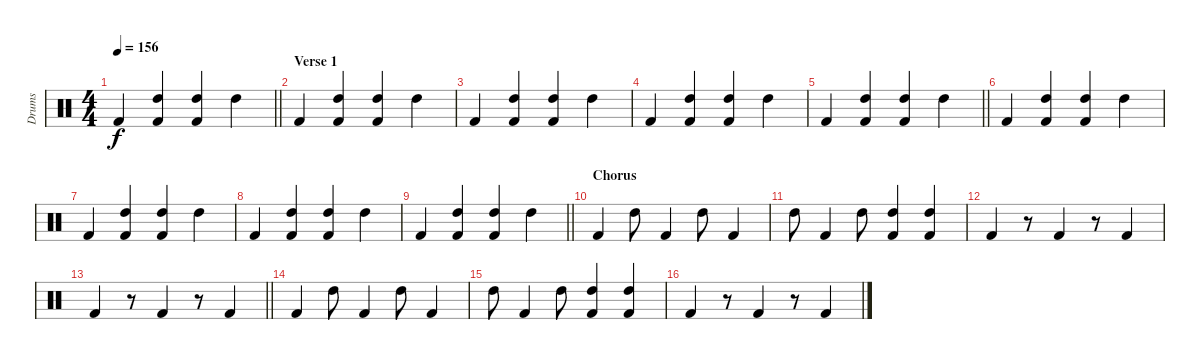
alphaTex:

\track ("Drums" "Drums") {instrument percussion}
\staff
\articulation defaults
\ts (4 4)
\tempo 156
\clef neutral
\barLineRight lightlight
\ks c "Kick (hit) 2".4{dy f}
("High Tom (hit)" "Kick (hit) 2").4 ("High Tom (hit)" "Kick (hit) 2").4 "High Tom (hit)".4 |
\section ("" "Verse 1")
"Kick (hit) 2".4 ("High Tom (hit)" "Kick (hit) 2").4 ("High Tom (hit)" "Kick (hit) 2").4 "High Tom (hit)".4 |
"Kick (hit) 2".4 ("High Tom (hit)" "Kick (hit) 2").4 ("High Tom (hit)" "Kick (hit) 2").4 "High Tom (hit)".4 |
"Kick (hit) 2".4 ("High Tom (hit)" "Kick (hit) 2").4 ("High Tom (hit)" "Kick (hit) 2").4 "High Tom (hit)".4 |
\barLineRight lightlight "Kick (hit) 2".4
("High Tom (hit)" "Kick (hit) 2").4 ("High Tom (hit)" "Kick (hit) 2").4 "High Tom (hit)".4 |
"Kick (hit) 2".4 ("High Tom (hit)" "Kick (hit) 2").4 ("High Tom (hit)" "Kick (hit) 2").4 "High Tom (hit)".4 |
"Kick (hit) 2".4 ("High Tom (hit)" "Kick (hit) 2").4 ("High Tom (hit)" "Kick (hit) 2").4 "High Tom (hit)".4 |
"Kick (hit) 2".4 ("High Tom (hit)" "Kick (hit) 2").4 ("High Tom (hit)" "Kick (hit) 2").4 "High Tom (hit)".4 |
\barLineRight lightlight "Kick (hit) 2".4
("High Tom (hit)" "Kick (hit) 2").4 ("High Tom (hit)" "Kick (hit) 2").4 "High Tom (hit)".4 |
\section ("" "Chorus")
"Kick (hit) 2".4 "High Tom (hit)".8 "Kick (hit) 2".4 "High Tom (hit)".8 "Kick (hit) 2".4 |
"High Tom (hit)".8 "Kick (hit) 2".4 "High Tom (hit)".8 ("High Tom (hit)" "Kick (hit) 2").4 ("High Tom (hit)" "Kick (hit) 2").4 |
"Kick (hit) 2".4 r.8 "Kick (hit) 2".4 r.8 "Kick (hit) 2".4 |
\barLineRight lightlight "Kick (hit) 2".4
r.8 "Kick (hit) 2".4 r.8 "Kick (hit) 2".4 |
"Kick (hit) 2".4 "High Tom (hit)".8 "Kick (hit) 2".4 "High Tom (hit)".8 "Kick (hit) 2".4 |
"High Tom (hit)".8 "Kick (hit) 2".4 "High Tom (hit)".8 ("High Tom (hit)" "Kick (hit) 2").4 ("High Tom (hit)" "Kick (hit) 2").4 |
"Kick (hit) 2".4 r.8 "Kick (hit) 2".4 r.8 "Kick (hit) 2".4
